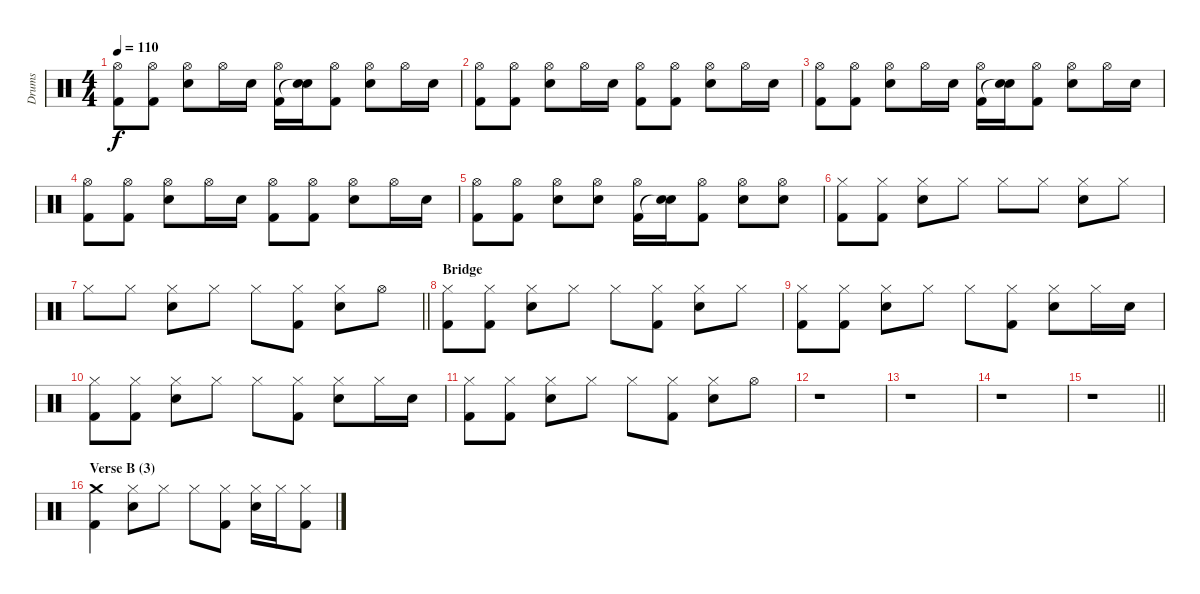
\track ("Drums" "Drums") {instrument percussion}
\staff {score}
\articulation defaults
\ts (4 4)
\tempo 110
\clef neutral
\ks c
("Hi-Hat (open)" "Kick (hit) 2").8{dy f} ("Hi-Hat (open)" "Kick (hit) 2").8 ("Hi-Hat (open)" "Electric Snare (hit)").8 "Hi-Hat (open)".16 "Electric Snare (hit)".16 ("Hi-Hat (open)" "Kick (hit) 2").16 ("Electric Snare (hit)" "Snare (hit)"{t}).16 ("Hi-Hat (open)" "Kick (hit) 2").8 ("Hi-Hat (open)" "Electric Snare (hit)").8 "Hi-Hat (open)".16 "Electric Snare (hit)".16 |
("Hi-Hat (open)" "Kick (hit) 2").8 ("Hi-Hat (open)" "Kick (hit) 2").8 ("Hi-Hat (open)" "Electric Snare (hit)").8 "Hi-Hat (open)".16 "Electric Snare (hit)".16 ("Hi-Hat (open)" "Kick (hit) 2").8 ("Hi-Hat (open)" "Kick (hit) 2").8 ("Hi-Hat (open)" "Electric Snare (hit)").8 "Hi-Hat (open)".16 "Electric Snare (hit)".16 |
("Hi-Hat (open)" "Kick (hit) 2").8 ("Hi-Hat (open)" "Kick (hit) 2").8 ("Hi-Hat (open)" "Electric Snare (hit)").8 "Hi-Hat (open)".16 "Electric Snare (hit)".16 ("Hi-Hat (open)" "Kick (hit) 2").16 ("Electric Snare (hit)" "Snare (hit)"{t}).16 ("Hi-Hat (open)" "Kick (hit) 2").8 ("Hi-Hat (open)" "Electric Snare (hit)").8 "Hi-Hat (open)".16 "Electric Snare (hit)".16 |
("Hi-Hat (open)" "Kick (hit) 2").8 ("Hi-Hat (open)" "Kick (hit) 2").8 ("Hi-Hat (open)" "Electric Snare (hit)").8 "Hi-Hat (open)".16 "Electric Snare (hit)".16 ("Hi-Hat (open)" "Kick (hit) 2").8 ("Hi-Hat (open)" "Kick (hit) 2").8 ("Hi-Hat (open)" "Electric Snare (hit)").8 "Hi-Hat (open)".16 "Electric Snare (hit)".16 |
("Hi-Hat (open)" "Kick (hit) 2").8 ("Hi-Hat (open)" "Kick (hit) 2").8 ("Hi-Hat (open)" "Electric Snare (hit)").8 ("Hi-Hat (open)" "Electric Snare (hit)").8 ("Hi-Hat (open)" "Kick (hit) 2").16 ("Electric Snare (hit)" "Snare (hit)"{t}).16 ("Hi-Hat (open)" "Kick (hit) 2").8 ("Hi-Hat (open)" "Electric Snare (hit)").8 ("Hi-Hat (open)" "Electric Snare (hit)").8 |
("Hi-Hat (closed)" "Kick (hit) 2").8 ("Hi-Hat (closed)" "Kick (hit) 2").8 ("Hi-Hat (closed)" "Electric Snare (hit)").8 "Hi-Hat (closed)".8 "Hi-Hat (closed)".8 "Hi-Hat (closed)".8 ("Hi-Hat (closed)" "Electric Snare (hit)").8 "Hi-Hat (closed)".8 |
\barLineRight lightlight "Hi-Hat (closed)".8 "Hi-Hat (closed)".8
("Hi-Hat (closed)" "Electric Snare (hit)").8 "Hi-Hat (closed)".8 "Hi-Hat (closed)".8 ("Hi-Hat (closed)" "Kick (hit) 2").8 ("Hi-Hat (closed)" "Electric Snare (hit)").8 "Hi-Hat (open)".8 |
\section ("" "Bridge")
("Hi-Hat (closed)" "Kick (hit) 2").8 ("Hi-Hat (closed)" "Kick (hit) 2").8 ("Hi-Hat (closed)" "Electric Snare (hit)").8 "Hi-Hat (closed)".8 "Hi-Hat (closed)".8 ("Hi-Hat (closed)" "Kick (hit) 2").8 ("Hi-Hat (closed)" "Electric Snare (hit)").8 "Hi-Hat (closed)".8 |
("Hi-Hat (closed)" "Kick (hit) 2").8 ("Hi-Hat (closed)" "Kick (hit) 2").8 ("Hi-Hat (closed)" "Electric Snare (hit)").8 "Hi-Hat (closed)".8 "Hi-Hat (closed)".8 ("Hi-Hat (closed)" "Kick (hit) 2").8 ("Hi-Hat (closed)" "Electric Snare (hit)").8 "Hi-Hat (closed)".16 "Electric Snare (hit)".16 |
("Hi-Hat (closed)" "Kick (hit) 2").8 ("Hi-Hat (closed)" "Kick (hit) 2").8 ("Hi-Hat (closed)" "Electric Snare (hit)").8 "Hi-Hat (closed)".8 "Hi-Hat (closed)".8 ("Hi-Hat (closed)" "Kick (hit) 2").8 ("Hi-Hat (closed)" "Electric Snare (hit)").8 "Hi-Hat (closed)".16 "Electric Snare (hit)".16 |
("Hi-Hat (closed)" "Kick (hit) 2").8 ("Hi-Hat (closed)" "Kick (hit) 2").8 ("Hi-Hat (closed)" "Electric Snare (hit)").8 "Hi-Hat (closed)".8 "Hi-Hat (closed)".8 ("Hi-Hat (closed)" "Kick (hit) 2").8 ("Hi-Hat (closed)" "Electric Snare (hit)").8 "Hi-Hat (open)".8 |
r.1 |
r.1 |
r.1 |
\barLineRight lightlight
r.1 |
\section ("" "Verse B (3)")
("Crash medium (hit)" "Kick (hit) 2").4 ("Hi-Hat (closed)" "Electric Snare (hit)").8 "Hi-Hat (closed)".8 "Hi-Hat (closed)".8 ("Hi-Hat (closed)" "Kick (hit) 2").8 ("Hi-Hat (closed)" "Electric Snare (hit)").16 "Hi-Hat (closed)".16 ("Hi-Hat (closed)" "Kick (hit) 2").8
